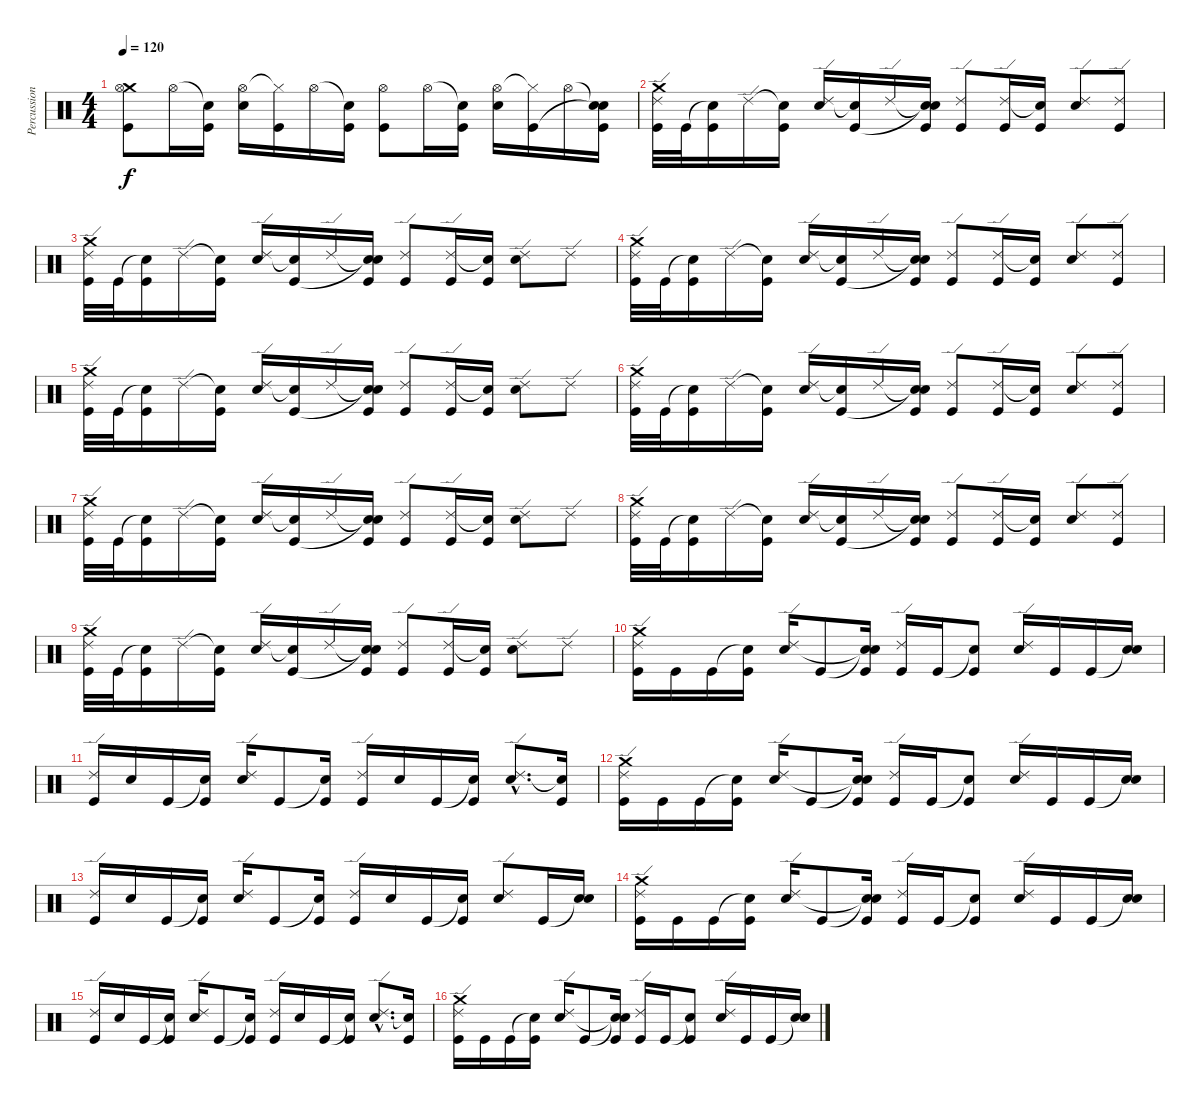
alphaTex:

\track ("Percussion" "Percussion") {instrument percussion}
\staff {score}
\articulation defaults
\ts (4 4)
\tempo 120
\clef neutral
\ks c
("Crash medium (hit)" "Hi-Hat (open)" "Kick (hit)").8{dy f} "Hi-Hat (open)".16 ("Snare (hit)"{t} "Kick (hit)").16 ("Hi-Hat (open)" "Electric Snare (hit)").16 ("Hi-Hat (closed)"{t} "Kick (hit)").16 "Hi-Hat (open)".16 ("Snare (hit)"{t} "Kick (hit)").16 ("Hi-Hat (open)" "Kick (hit)").8 "Hi-Hat (open)".16 ("Snare (hit)"{t} "Kick (hit)").16 ("Hi-Hat (open)" "Electric Snare (hit)").16 ("Hi-Hat (closed)"{t} "Kick (hit)").16 "Hi-Hat (open)".16 ("Snare (hit)"{t} "Snare (hit)"{t} "Kick (hit)").16 |
("Crash medium (hit)" "Ride (edge) 2" "Kick (hit)").32 "Kick (hit)".32 ("Snare (hit)"{t} "Kick (hit)").16 "Ride (edge) 2".16 ("Snare (hit)"{t} "Kick (hit)").16 ("Ride (edge) 2" "Electric Snare (hit)").16 ("Snare (hit)"{t} "Kick (hit)").16 "Ride (edge) 2".16 ("Snare (hit)"{t} "Snare (hit)"{t} "Kick (hit)").16 ("Ride (edge) 2" "Kick (hit)").8 ("Ride (edge) 2" "Kick (hit)").16 ("Snare (hit)"{t} "Kick (hit)").16 ("Ride (edge) 2" "Electric Snare (hit)").8 ("Ride (edge) 2" "Kick (hit)").8 |
("Crash medium (hit)" "Ride (edge) 2" "Kick (hit)").32 "Kick (hit)".32 ("Snare (hit)"{t} "Kick (hit)").16 "Ride (edge) 2".16 ("Snare (hit)"{t} "Kick (hit)").16 ("Ride (edge) 2" "Electric Snare (hit)").16 ("Snare (hit)"{t} "Kick (hit)").16 "Ride (edge) 2".16 ("Snare (hit)"{t} "Snare (hit)"{t} "Kick (hit)").16 ("Ride (edge) 2" "Kick (hit)").8 ("Ride (edge) 2" "Kick (hit)").16 ("Snare (hit)"{t} "Kick (hit)").16 ("Ride (edge) 2" "Electric Snare (hit)").8 "Ride (edge) 2".8 |
("Crash medium (hit)" "Ride (edge) 2" "Kick (hit)").32 "Kick (hit)".32 ("Snare (hit)"{t} "Kick (hit)").16 "Ride (edge) 2".16 ("Snare (hit)"{t} "Kick (hit)").16 ("Ride (edge) 2" "Electric Snare (hit)").16 ("Snare (hit)"{t} "Kick (hit)").16 "Ride (edge) 2".16 ("Snare (hit)"{t} "Snare (hit)"{t} "Kick (hit)").16 ("Ride (edge) 2" "Kick (hit)").8 ("Ride (edge) 2" "Kick (hit)").16 ("Snare (hit)"{t} "Kick (hit)").16 ("Ride (edge) 2" "Electric Snare (hit)").8 ("Ride (edge) 2" "Kick (hit)").8 |
("Crash medium (hit)" "Ride (edge) 2" "Kick (hit)").32 "Kick (hit)".32 ("Snare (hit)"{t} "Kick (hit)").16 "Ride (edge) 2".16 ("Snare (hit)"{t} "Kick (hit)").16 ("Ride (edge) 2" "Electric Snare (hit)").16 ("Snare (hit)"{t} "Kick (hit)").16 "Ride (edge) 2".16 ("Snare (hit)"{t} "Snare (hit)"{t} "Kick (hit)").16 ("Ride (edge) 2" "Kick (hit)").8 ("Ride (edge) 2" "Kick (hit)").16 ("Snare (hit)"{t} "Kick (hit)").16 ("Ride (edge) 2" "Electric Snare (hit)").8 "Ride (edge) 2".8 |
("Crash medium (hit)" "Ride (edge) 2" "Kick (hit)").32 "Kick (hit)".32 ("Snare (hit)"{t} "Kick (hit)").16 "Ride (edge) 2".16 ("Snare (hit)"{t} "Kick (hit)").16 ("Ride (edge) 2" "Electric Snare (hit)").16 ("Snare (hit)"{t} "Kick (hit)").16 "Ride (edge) 2".16 ("Snare (hit)"{t} "Snare (hit)"{t} "Kick (hit)").16 ("Ride (edge) 2" "Kick (hit)").8 ("Ride (edge) 2" "Kick (hit)").16 ("Snare (hit)"{t} "Kick (hit)").16 ("Ride (edge) 2" "Electric Snare (hit)").8 ("Ride (edge) 2" "Kick (hit)").8 |
("Crash medium (hit)" "Ride (edge) 2" "Kick (hit)").32 "Kick (hit)".32 ("Snare (hit)"{t} "Kick (hit)").16 "Ride (edge) 2".16 ("Snare (hit)"{t} "Kick (hit)").16 ("Ride (edge) 2" "Electric Snare (hit)").16 ("Snare (hit)"{t} "Kick (hit)").16 "Ride (edge) 2".16 ("Snare (hit)"{t} "Snare (hit)"{t} "Kick (hit)").16 ("Ride (edge) 2" "Kick (hit)").8 ("Ride (edge) 2" "Kick (hit)").16 ("Snare (hit)"{t} "Kick (hit)").16 ("Ride (edge) 2" "Electric Snare (hit)").8 "Ride (edge) 2".8 |
("Crash medium (hit)" "Ride (edge) 2" "Kick (hit)").32 "Kick (hit)".32 ("Snare (hit)"{t} "Kick (hit)").16 "Ride (edge) 2".16 ("Snare (hit)"{t} "Kick (hit)").16 ("Ride (edge) 2" "Electric Snare (hit)").16 ("Snare (hit)"{t} "Kick (hit)").16 "Ride (edge) 2".16 ("Snare (hit)"{t} "Snare (hit)"{t} "Kick (hit)").16 ("Ride (edge) 2" "Kick (hit)").8 ("Ride (edge) 2" "Kick (hit)").16 ("Snare (hit)"{t} "Kick (hit)").16 ("Ride (edge) 2" "Electric Snare (hit)").8 ("Ride (edge) 2" "Kick (hit)").8 |
("Crash medium (hit)" "Ride (edge) 2" "Kick (hit)").32 "Kick (hit)".32 ("Snare (hit)"{t} "Kick (hit)").16 "Ride (edge) 2".16 ("Snare (hit)"{t} "Kick (hit)").16 ("Ride (edge) 2" "Electric Snare (hit)").16 ("Snare (hit)"{t} "Kick (hit)").16 "Ride (edge) 2".16 ("Snare (hit)"{t} "Snare (hit)"{t} "Kick (hit)").16 ("Ride (edge) 2" "Kick (hit)").8 ("Ride (edge) 2" "Kick (hit)").16 ("Snare (hit)"{t} "Kick (hit)").16 ("Ride (edge) 2" "Electric Snare (hit)").8 "Ride (edge) 2".8 |
("Crash medium (hit)" "Ride (edge) 2" "Kick (hit)").16 "Kick (hit)".16 "Kick (hit)".16 ("Snare (hit)"{t} "Kick (hit)").16 ("Ride (edge) 2" "Electric Snare (hit)").16 "Kick (hit)".8 ("Snare (hit)"{t} "Snare (hit)"{t} "Kick (hit)").16 ("Ride (edge) 2" "Kick (hit)").16 "Kick (hit)".16 ("Snare (hit)"{t} "Kick (hit)").8 ("Ride (edge) 2" "Electric Snare (hit)").16 "Kick (hit)".16 "Kick (hit)".16 ("Snare (hit)"{t} "Electric Snare (hit)").16 |
("Ride (edge) 2" "Kick (hit)").16 "Electric Snare (hit)".16 "Kick (hit)".16 ("Snare (hit)"{t} "Kick (hit)").16 ("Ride (edge) 2" "Electric Snare (hit)").16 "Kick (hit)".8 ("Snare (hit)"{t} "Kick (hit)").16 ("Ride (edge) 2" "Kick (hit)").16 "Electric Snare (hit)".16 "Kick (hit)".16 ("Snare (hit)"{t} "Kick (hit)").16 ("Ride (edge) 2"{hac} "Electric Snare (hit)"{hac}).8{d} ("Snare (hit)"{t} "Kick (hit)").16 |
("Crash medium (hit)" "Ride (edge) 2" "Kick (hit)").16 "Kick (hit)".16 "Kick (hit)".16 ("Snare (hit)"{t} "Kick (hit)").16 ("Ride (edge) 2" "Electric Snare (hit)").16 "Kick (hit)".8 ("Snare (hit)"{t} "Snare (hit)"{t} "Kick (hit)").16 ("Ride (edge) 2" "Kick (hit)").16 "Kick (hit)".16 ("Snare (hit)"{t} "Kick (hit)").8 ("Ride (edge) 2" "Electric Snare (hit)").16 "Kick (hit)".16 "Kick (hit)".16 ("Snare (hit)"{t} "Electric Snare (hit)").16 |
("Ride (edge) 2" "Kick (hit)").16 "Electric Snare (hit)".16 "Kick (hit)".16 ("Snare (hit)"{t} "Kick (hit)").16 ("Ride (edge) 2" "Electric Snare (hit)").16 "Kick (hit)".8 ("Snare (hit)"{t} "Kick (hit)").16 ("Ride (edge) 2" "Kick (hit)").16 "Electric Snare (hit)".16 "Kick (hit)".16 ("Snare (hit)"{t} "Kick (hit)").16 ("Ride (edge) 2" "Electric Snare (hit)").8 "Kick (hit)".16 ("Snare (hit)"{t} "Electric Snare (hit)").16 |
("Crash medium (hit)" "Ride (edge) 2" "Kick (hit)").16{volume 0} "Kick (hit)".16 "Kick (hit)".16 ("Snare (hit)"{t} "Kick (hit)").16 ("Ride (edge) 2" "Electric Snare (hit)").16 "Kick (hit)".8 ("Snare (hit)"{t} "Snare (hit)"{t} "Kick (hit)").16 ("Ride (edge) 2" "Kick (hit)").16 "Kick (hit)".16 ("Snare (hit)"{t} "Kick (hit)").8 ("Ride (edge) 2" "Electric Snare (hit)").16 "Kick (hit)".16 "Kick (hit)".16 ("Snare (hit)"{t} "Electric Snare (hit)").16 |
("Ride (edge) 2" "Kick (hit)").16 "Electric Snare (hit)".16 "Kick (hit)".16 ("Snare (hit)"{t} "Kick (hit)").16 ("Ride (edge) 2" "Electric Snare (hit)").16 "Kick (hit)".8 ("Snare (hit)"{t} "Kick (hit)").16 ("Ride (edge) 2" "Kick (hit)").16 "Electric Snare (hit)".16 "Kick (hit)".16 ("Snare (hit)"{t} "Kick (hit)").16 ("Ride (edge) 2"{hac} "Electric Snare (hit)"{hac}).8{d} ("Snare (hit)"{t} "Kick (hit)").16 |
("Crash medium (hit)" "Ride (edge) 2" "Kick (hit)").16 "Kick (hit)".16 "Kick (hit)".16 ("Snare (hit)"{t} "Kick (hit)").16 ("Ride (edge) 2" "Electric Snare (hit)").16 "Kick (hit)".8 ("Snare (hit)"{t} "Snare (hit)"{t} "Kick (hit)").16 ("Ride (edge) 2" "Kick (hit)").16 "Kick (hit)".16 ("Snare (hit)"{t} "Kick (hit)").8 ("Ride (edge) 2" "Electric Snare (hit)").16 "Kick (hit)".16 "Kick (hit)".16 ("Snare (hit)"{t} "Electric Snare (hit)").16
